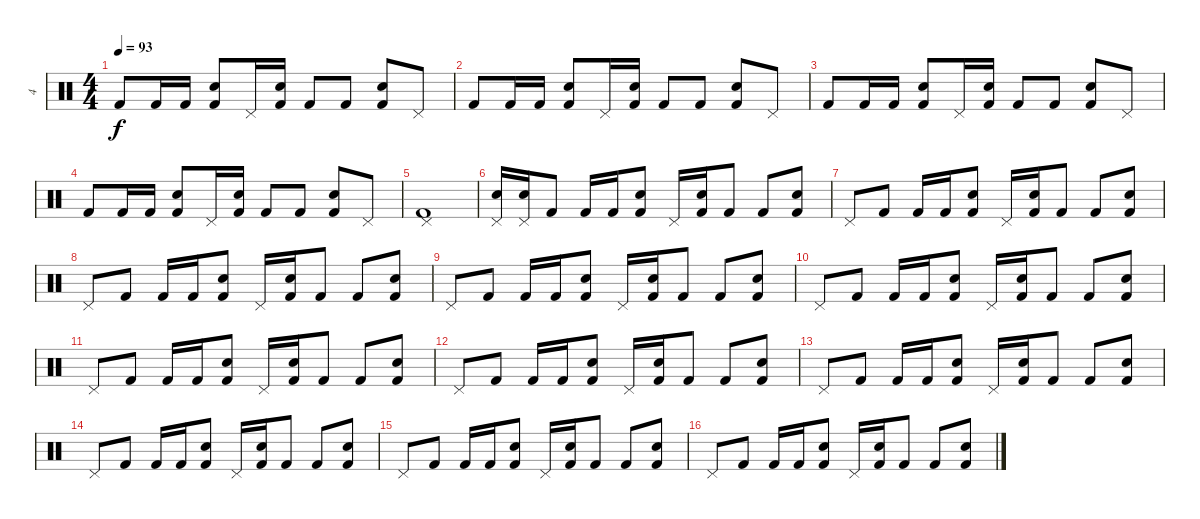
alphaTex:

\track ("4" "4") {instrument percussion}
\staff {score}
\articulation defaults
\ts (4 4)
\tempo 93
\clef neutral
\ks c "Kick (hit) 2".8{dy f} "Kick (hit) 2".16 "Kick (hit) 2".16
("Kick (hit) 2" "Electric Snare (hit)").8 "Pedal Hi-Hat (hit)".16 ("Kick (hit) 2" "Electric Snare (hit)").16 "Kick (hit) 2".8 "Kick (hit) 2".8 ("Kick (hit) 2" "Electric Snare (hit)").8 "Pedal Hi-Hat (hit)".8 |
"Kick (hit) 2".8 "Kick (hit) 2".16 "Kick (hit) 2".16 ("Kick (hit) 2" "Electric Snare (hit)").8 "Pedal Hi-Hat (hit)".16 ("Kick (hit) 2" "Electric Snare (hit)").16 "Kick (hit) 2".8 "Kick (hit) 2".8 ("Kick (hit) 2" "Electric Snare (hit)").8 "Pedal Hi-Hat (hit)".8 |
"Kick (hit) 2".8 "Kick (hit) 2".16 "Kick (hit) 2".16 ("Kick (hit) 2" "Electric Snare (hit)").8 "Pedal Hi-Hat (hit)".16 ("Kick (hit) 2" "Electric Snare (hit)").16 "Kick (hit) 2".8 "Kick (hit) 2".8 ("Kick (hit) 2" "Electric Snare (hit)").8 "Pedal Hi-Hat (hit)".8 |
"Kick (hit) 2".8 "Kick (hit) 2".16 "Kick (hit) 2".16 ("Kick (hit) 2" "Electric Snare (hit)").8 "Pedal Hi-Hat (hit)".16 ("Kick (hit) 2" "Electric Snare (hit)").16 "Kick (hit) 2".8 "Kick (hit) 2".8 ("Kick (hit) 2" "Electric Snare (hit)").8 "Pedal Hi-Hat (hit)".8 |
("Kick (hit) 2" "Pedal Hi-Hat (hit)").1 |
("Electric Snare (hit)" "Pedal Hi-Hat (hit)").16 ("Electric Snare (hit)" "Pedal Hi-Hat (hit)").16 "Kick (hit) 2".8 "Kick (hit) 2".16 "Kick (hit) 2".16 ("Kick (hit) 2" "Electric Snare (hit)").8 "Pedal Hi-Hat (hit)".16 ("Kick (hit) 2" "Electric Snare (hit)").16 "Kick (hit) 2".8 "Kick (hit) 2".8 ("Kick (hit) 2" "Electric Snare (hit)").8 |
"Pedal Hi-Hat (hit)".8 "Kick (hit) 2".8 "Kick (hit) 2".16 "Kick (hit) 2".16 ("Kick (hit) 2" "Electric Snare (hit)").8 "Pedal Hi-Hat (hit)".16 ("Kick (hit) 2" "Electric Snare (hit)").16 "Kick (hit) 2".8 "Kick (hit) 2".8 ("Kick (hit) 2" "Electric Snare (hit)").8 |
"Pedal Hi-Hat (hit)".8 "Kick (hit) 2".8 "Kick (hit) 2".16 "Kick (hit) 2".16 ("Kick (hit) 2" "Electric Snare (hit)").8 "Pedal Hi-Hat (hit)".16 ("Kick (hit) 2" "Electric Snare (hit)").16 "Kick (hit) 2".8 "Kick (hit) 2".8 ("Kick (hit) 2" "Electric Snare (hit)").8 |
"Pedal Hi-Hat (hit)".8 "Kick (hit) 2".8 "Kick (hit) 2".16 "Kick (hit) 2".16 ("Kick (hit) 2" "Electric Snare (hit)").8 "Pedal Hi-Hat (hit)".16 ("Kick (hit) 2" "Electric Snare (hit)").16 "Kick (hit) 2".8 "Kick (hit) 2".8 ("Kick (hit) 2" "Electric Snare (hit)").8 |
"Pedal Hi-Hat (hit)".8 "Kick (hit) 2".8 "Kick (hit) 2".16 "Kick (hit) 2".16 ("Kick (hit) 2" "Electric Snare (hit)").8 "Pedal Hi-Hat (hit)".16 ("Kick (hit) 2" "Electric Snare (hit)").16 "Kick (hit) 2".8 "Kick (hit) 2".8 ("Kick (hit) 2" "Electric Snare (hit)").8 |
"Pedal Hi-Hat (hit)".8 "Kick (hit) 2".8 "Kick (hit) 2".16 "Kick (hit) 2".16 ("Kick (hit) 2" "Electric Snare (hit)").8 "Pedal Hi-Hat (hit)".16 ("Kick (hit) 2" "Electric Snare (hit)").16 "Kick (hit) 2".8 "Kick (hit) 2".8 ("Kick (hit) 2" "Electric Snare (hit)").8 |
"Pedal Hi-Hat (hit)".8 "Kick (hit) 2".8 "Kick (hit) 2".16 "Kick (hit) 2".16 ("Kick (hit) 2" "Electric Snare (hit)").8 "Pedal Hi-Hat (hit)".16 ("Kick (hit) 2" "Electric Snare (hit)").16 "Kick (hit) 2".8 "Kick (hit) 2".8 ("Kick (hit) 2" "Electric Snare (hit)").8 |
"Pedal Hi-Hat (hit)".8 "Kick (hit) 2".8 "Kick (hit) 2".16 "Kick (hit) 2".16 ("Kick (hit) 2" "Electric Snare (hit)").8 "Pedal Hi-Hat (hit)".16 ("Kick (hit) 2" "Electric Snare (hit)").16 "Kick (hit) 2".8 "Kick (hit) 2".8 ("Kick (hit) 2" "Electric Snare (hit)").8 |
"Pedal Hi-Hat (hit)".8 "Kick (hit) 2".8 "Kick (hit) 2".16 "Kick (hit) 2".16 ("Kick (hit) 2" "Electric Snare (hit)").8 "Pedal Hi-Hat (hit)".16 ("Kick (hit) 2" "Electric Snare (hit)").16 "Kick (hit) 2".8 "Kick (hit) 2".8 ("Kick (hit) 2" "Electric Snare (hit)").8 |
"Pedal Hi-Hat (hit)".8 "Kick (hit) 2".8 "Kick (hit) 2".16 "Kick (hit) 2".16 ("Kick (hit) 2" "Electric Snare (hit)").8 "Pedal Hi-Hat (hit)".16 ("Kick (hit) 2" "Electric Snare (hit)").16 "Kick (hit) 2".8 "Kick (hit) 2".8 ("Kick (hit) 2" "Electric Snare (hit)").8 |
"Pedal Hi-Hat (hit)".8 "Kick (hit) 2".8 "Kick (hit) 2".16 "Kick (hit) 2".16 ("Kick (hit) 2" "Electric Snare (hit)").8 "Pedal Hi-Hat (hit)".16 ("Kick (hit) 2" "Electric Snare (hit)").16 "Kick (hit) 2".8 "Kick (hit) 2".8 ("Kick (hit) 2" "Electric Snare (hit)").8
